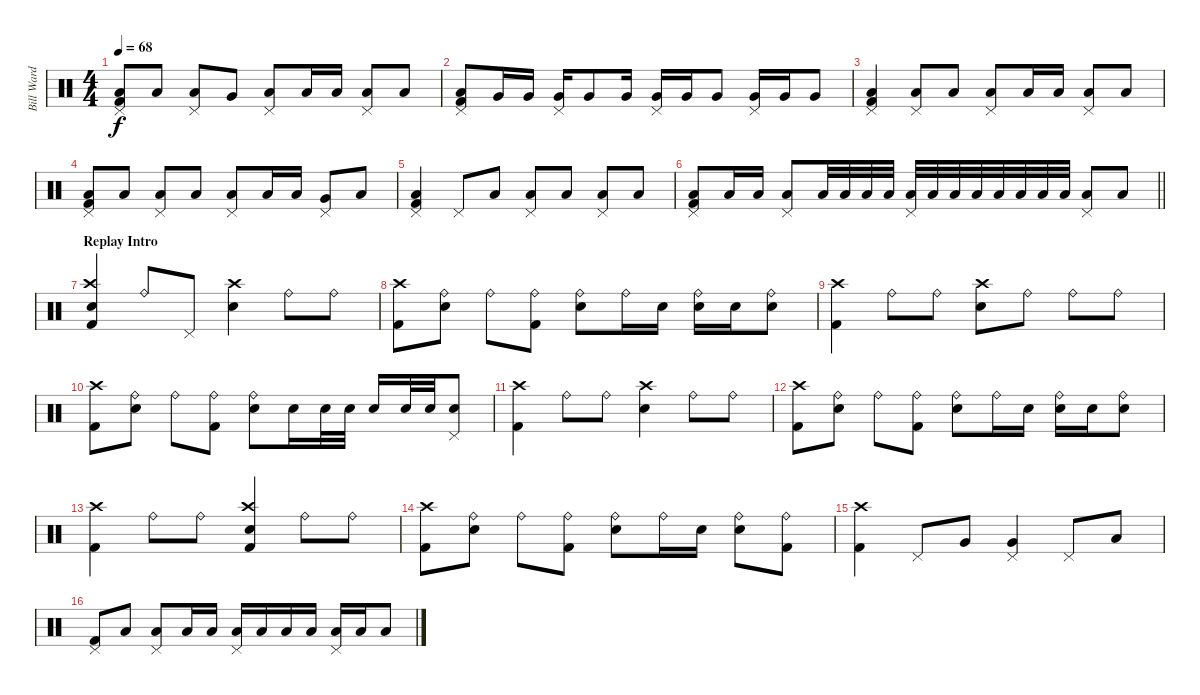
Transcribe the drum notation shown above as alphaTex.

\track ("Bill Ward" "Bill Ward") {instrument percussion}
\staff {score}
\articulation defaults
\ts (4 4)
\tempo 68
\clef neutral
\ks c
("Pedal Hi-Hat (hit)" "Low Floor Tom (hit)" "Kick (hit) 2").8{dy f} "Low Floor Tom (hit)".8 ("Pedal Hi-Hat (hit)" "Low Floor Tom (hit)").8 "Very Low Tom (hit)".8 ("Pedal Hi-Hat (hit)" "Low Floor Tom (hit)").8 "Low Floor Tom (hit)".16 "Low Floor Tom (hit)".16 ("Pedal Hi-Hat (hit)" "Low Floor Tom (hit)").8 "Low Floor Tom (hit)".8 |
("Pedal Hi-Hat (hit)" "Low Floor Tom (hit)" "Kick (hit) 2").8 "Very Low Tom (hit)".16 "Very Low Tom (hit)".16 ("Pedal Hi-Hat (hit)" "Very Low Tom (hit)").16 "Very Low Tom (hit)".8 "Very Low Tom (hit)".16 ("Pedal Hi-Hat (hit)" "Very Low Tom (hit)").16 "Very Low Tom (hit)".16 "Very Low Tom (hit)".8 ("Pedal Hi-Hat (hit)" "Very Low Tom (hit)").16 "Very Low Tom (hit)".16 "Very Low Tom (hit)".8 |
("Pedal Hi-Hat (hit)" "Low Floor Tom (hit)" "Kick (hit) 2").4 ("Pedal Hi-Hat (hit)" "Low Floor Tom (hit)").8 "Low Floor Tom (hit)".8 ("Pedal Hi-Hat (hit)" "Low Floor Tom (hit)").8 "Low Floor Tom (hit)".16 "Low Floor Tom (hit)".16 ("Pedal Hi-Hat (hit)" "Low Floor Tom (hit)").8 "Low Floor Tom (hit)".8 |
("Pedal Hi-Hat (hit)" "Low Floor Tom (hit)" "Kick (hit) 2").8 "Low Floor Tom (hit)".8 ("Pedal Hi-Hat (hit)" "Low Floor Tom (hit)").8 "Low Floor Tom (hit)".8 ("Pedal Hi-Hat (hit)" "Low Floor Tom (hit)").8 "Low Floor Tom (hit)".16 "Low Floor Tom (hit)".16 ("Pedal Hi-Hat (hit)" "Very Low Tom (hit)").8 "Low Floor Tom (hit)".8 |
("Pedal Hi-Hat (hit)" "Low Floor Tom (hit)" "Kick (hit) 2").4 "Pedal Hi-Hat (hit)".8 "Low Floor Tom (hit)".8 ("Pedal Hi-Hat (hit)" "Low Floor Tom (hit)").8 "Low Floor Tom (hit)".8 ("Pedal Hi-Hat (hit)" "Low Floor Tom (hit)").8 "Low Floor Tom (hit)".8 |
\barLineRight lightlight
("Pedal Hi-Hat (hit)" "Low Floor Tom (hit)" "Kick (hit) 2").8 "Low Floor Tom (hit)".16 "Low Floor Tom (hit)".16 ("Pedal Hi-Hat (hit)" "Low Floor Tom (hit)").8 "Low Floor Tom (hit)".32 "Low Floor Tom (hit)".32 "Low Floor Tom (hit)".32 "Low Floor Tom (hit)".32 ("Pedal Hi-Hat (hit)" "Low Floor Tom (hit)").32 "Low Floor Tom (hit)".32 "Low Floor Tom (hit)".32 "Low Floor Tom (hit)".32 "Low Floor Tom (hit)".32 "Low Floor Tom (hit)".32 "Low Floor Tom (hit)".32 "Low Floor Tom (hit)".32 ("Pedal Hi-Hat (hit)" "Low Floor Tom (hit)").8 "Low Floor Tom (hit)".8 |
\section ("" "Replay Intro")
("Crash high (hit)" "Snare (hit) 2" "Kick (hit) 2").4{volume 11} "Ride (bell)".8 "Pedal Hi-Hat (hit)".8 ("Crash high (hit)" "Snare (hit) 2").4 "Ride (bell)".8 "Ride (bell)".8 |
("Crash high (hit)" "Kick (hit) 2").8 ("Ride (bell)" "Snare (hit) 2").8 "Ride (bell)".8 ("Ride (bell)" "Kick (hit) 2").8 ("Ride (bell)" "Snare (hit) 2").8 "Ride (bell)".16 "Snare (hit) 2".16 ("Ride (bell)" "Snare (hit) 2").16 "Snare (hit) 2".16 ("Ride (bell)" "Snare (hit) 2").8 |
("Crash high (hit)" "Kick (hit) 2").4 "Ride (bell)".8 "Ride (bell)".8 ("Crash high (hit)" "Snare (hit) 2").8 "Ride (bell)".8 "Ride (bell)".8 "Ride (bell)".8 |
("Crash high (hit)" "Kick (hit) 2").8 ("Ride (bell)" "Snare (hit) 2").8 "Ride (bell)".8 ("Ride (bell)" "Kick (hit) 2").8 ("Ride (bell)" "Snare (hit) 2").8 "Snare (hit) 2".16 "Snare (hit) 2".32 "Snare (hit) 2".32 "Snare (hit) 2".16 "Snare (hit) 2".32 "Snare (hit) 2".32 ("Pedal Hi-Hat (hit)" "Snare (hit) 2").8 |
("Crash high (hit)" "Kick (hit) 2").4 "Ride (bell)".8 "Ride (bell)".8 ("Crash high (hit)" "Snare (hit) 2").4 "Ride (bell)".8 "Ride (bell)".8 |
("Crash high (hit)" "Kick (hit) 2").8 ("Ride (bell)" "Snare (hit) 2").8 "Ride (bell)".8 ("Ride (bell)" "Kick (hit) 2").8 ("Ride (bell)" "Snare (hit) 2").8 "Ride (bell)".16 "Snare (hit) 2".16 ("Ride (bell)" "Snare (hit) 2").16 "Snare (hit) 2".16 ("Ride (bell)" "Snare (hit) 2").8 |
("Crash high (hit)" "Kick (hit) 2").4 "Ride (bell)".8 "Ride (bell)".8 ("Crash high (hit)" "Snare (hit) 2" "Kick (hit) 2").4 "Ride (bell)".8 "Ride (bell)".8 |
("Crash high (hit)" "Kick (hit) 2").8 ("Ride (bell)" "Snare (hit) 2").8 "Ride (bell)".8 ("Ride (bell)" "Kick (hit) 2").8 ("Ride (bell)" "Snare (hit) 2").8 "Ride (bell)".16 "Snare (hit) 2".16 ("Ride (bell)" "Snare (hit) 2").8 ("Ride (bell)" "Kick (hit) 2").8 |
("Crash high (hit)" "Kick (hit) 2").4{volume 8} "Pedal Hi-Hat (hit)".8 "Very Low Tom (hit)".8 ("Pedal Hi-Hat (hit)" "Very Low Tom (hit)").4 "Pedal Hi-Hat (hit)".8 "Low Floor Tom (hit)".8 |
("Pedal Hi-Hat (hit)" "Kick (hit) 2").8 "Low Floor Tom (hit)".8 ("Pedal Hi-Hat (hit)" "Low Floor Tom (hit)").8 "Low Floor Tom (hit)".16 "Low Floor Tom (hit)".16 ("Pedal Hi-Hat (hit)" "Low Floor Tom (hit)").16 "Low Floor Tom (hit)".16 "Low Floor Tom (hit)".16 "Low Floor Tom (hit)".16 ("Pedal Hi-Hat (hit)" "Low Floor Tom (hit)").16 "Low Floor Tom (hit)".16 "Low Floor Tom (hit)".8
